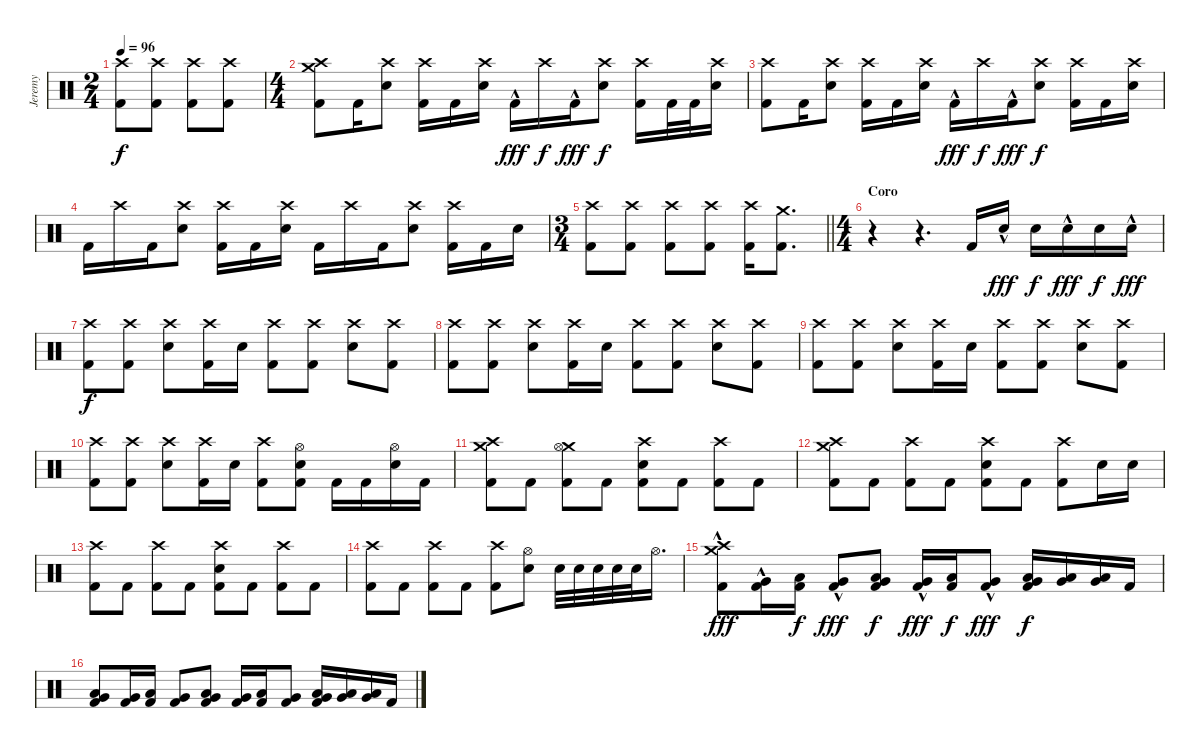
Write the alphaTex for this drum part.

\track ("Jeremy" "Jeremy") {instrument percussion}
\staff {score}
\articulation defaults
\ts (2 4)
\tempo 96
\clef neutral
\ks c
("Crash high (hit)" "Kick (hit) 2").8{dy f} ("Crash high (hit)" "Kick (hit) 2").8 ("Crash high (hit)" "Kick (hit) 2").8 ("Crash high (hit)" "Kick (hit) 2").8 |
\ts (4 4)
("Crash high (hit)" "Crash medium (hit)" "Kick (hit) 2").8 "Kick (hit) 2".16 ("Crash high (hit)" "Snare (hit) 2").8 ("Crash high (hit)" "Kick (hit) 2").16 "Kick (hit) 2".16 ("Crash high (hit)" "Snare (hit) 2").16 "Kick (hit) 2"{hac}.16{dy fff} "Crash high (hit)".16{dy f} "Kick (hit) 2"{hac}.16{dy fff} ("Crash high (hit)" "Snare (hit) 2").8{dy f} ("Crash high (hit)" "Kick (hit) 2").16 "Kick (hit) 2".32 "Kick (hit) 2".32 ("Crash high (hit)" "Snare (hit) 2").16 |
("Crash high (hit)" "Kick (hit) 2").8 "Kick (hit) 2".16 ("Crash high (hit)" "Snare (hit) 2").8 ("Crash high (hit)" "Kick (hit) 2").16 "Kick (hit) 2".16 ("Crash high (hit)" "Snare (hit) 2").16 "Kick (hit) 2"{hac}.16{dy fff} "Crash high (hit)".16{dy f} "Kick (hit) 2"{hac}.16{dy fff} ("Crash high (hit)" "Snare (hit) 2").8{dy f} ("Crash high (hit)" "Kick (hit) 2").16 "Kick (hit) 2".16 ("Crash high (hit)" "Snare (hit) 2").16 |
"Kick (hit) 2".16 "Crash high (hit)".16 "Kick (hit) 2".16 ("Crash high (hit)" "Snare (hit) 2").8 ("Crash high (hit)" "Kick (hit) 2").16 "Kick (hit) 2".16 ("Crash high (hit)" "Snare (hit) 2").16 "Kick (hit) 2".16 "Crash high (hit)".16 "Kick (hit) 2".16 ("Crash high (hit)" "Snare (hit) 2").8 ("Crash high (hit)" "Kick (hit) 2").16 "Kick (hit) 2".16 "Snare (hit) 2".16 |
\ts (3 4)
\barLineRight lightlight
("Crash high (hit)" "Kick (hit) 2").8 ("Crash high (hit)" "Kick (hit) 2").8 ("Crash high (hit)" "Kick (hit) 2").8 ("Crash high (hit)" "Kick (hit) 2").8 ("Crash high (hit)" "Kick (hit) 2").16 ("Crash medium (hit)" "Kick (hit) 2").8{d} |
\ts (4 4)
\section ("" "Coro")
r.4 r.4{d} "Kick (hit) 2".16 "Snare (hit) 2"{hac}.16{dy fff} "Snare (hit) 2".16{dy f} "Snare (hit) 2"{hac}.16{dy fff} "Snare (hit) 2".16{dy f} "Snare (hit) 2"{hac}.16{dy fff} |
("Crash high (hit)" "Kick (hit) 2").8{dy f} ("Crash high (hit)" "Kick (hit) 2").8 ("Crash high (hit)" "Snare (hit) 2").8 ("Crash high (hit)" "Kick (hit) 2").16 "Snare (hit) 2".16 ("Crash high (hit)" "Kick (hit) 2").8 ("Crash high (hit)" "Kick (hit) 2").8 ("Crash high (hit)" "Snare (hit) 2").8 ("Crash high (hit)" "Kick (hit) 2").8 |
("Crash high (hit)" "Kick (hit) 2").8 ("Crash high (hit)" "Kick (hit) 2").8 ("Crash high (hit)" "Snare (hit) 2").8 ("Crash high (hit)" "Kick (hit) 2").16 "Snare (hit) 2".16 ("Crash high (hit)" "Kick (hit) 2").8 ("Crash high (hit)" "Kick (hit) 2").8 ("Crash high (hit)" "Snare (hit) 2").8 ("Crash high (hit)" "Kick (hit) 2").8 |
("Crash high (hit)" "Kick (hit) 2").8 ("Crash high (hit)" "Kick (hit) 2").8 ("Crash high (hit)" "Snare (hit) 2").8 ("Crash high (hit)" "Kick (hit) 2").16 "Snare (hit) 2".16 ("Crash high (hit)" "Kick (hit) 2").8 ("Crash high (hit)" "Kick (hit) 2").8 ("Crash high (hit)" "Snare (hit) 2").8 ("Crash high (hit)" "Kick (hit) 2").8 |
("Crash high (hit)" "Kick (hit) 2").8 ("Crash high (hit)" "Kick (hit) 2").8 ("Crash high (hit)" "Snare (hit) 2").8 ("Crash high (hit)" "Kick (hit) 2").16 "Snare (hit) 2".16 ("Crash high (hit)" "Kick (hit) 2").8 ("Hi-Hat (open)" "Snare (hit) 2" "Kick (hit) 2").8 "Kick (hit) 2".16 "Kick (hit) 2".16 ("Hi-Hat (open)" "Snare (hit) 2").16 "Kick (hit) 2".16 |
("Crash high (hit)" "Crash medium (hit)" "Kick (hit) 2").8 "Kick (hit) 2".8 ("Crash medium (hit)" "Hi-Hat (open)" "Kick (hit) 2").8 "Kick (hit) 2".8 ("Crash high (hit)" "Snare (hit) 2" "Kick (hit) 2").8 "Kick (hit) 2".8 ("Crash high (hit)" "Kick (hit) 2").8 "Kick (hit) 2".8 |
("Crash high (hit)" "Crash medium (hit)" "Kick (hit) 2").8 "Kick (hit) 2".8 ("Crash high (hit)" "Kick (hit) 2").8 "Kick (hit) 2".8 ("Crash high (hit)" "Snare (hit) 2" "Kick (hit) 2").8 "Kick (hit) 2".8 ("Crash high (hit)" "Kick (hit) 2").8 "Snare (hit) 2".16 "Snare (hit) 2".16 |
("Crash high (hit)" "Kick (hit) 2").8 "Kick (hit) 2".8 ("Crash high (hit)" "Kick (hit) 2").8 "Kick (hit) 2".8 ("Crash high (hit)" "Snare (hit) 2" "Kick (hit) 2").8 "Kick (hit) 2".8 ("Crash high (hit)" "Kick (hit) 2").8 "Kick (hit) 2".8 |
("Crash high (hit)" "Kick (hit) 2").8 "Kick (hit) 2".8 ("Crash high (hit)" "Kick (hit) 2").8 "Kick (hit) 2".8 ("Crash high (hit)" "Kick (hit) 2").8 ("Hi-Hat (open)" "Snare (hit) 2").8 "Snare (hit) 2".32 "Snare (hit) 2".32 "Snare (hit) 2".32 "Snare (hit) 2".32 "Snare (hit) 2".32 "Hi-Hat (open)".16{d} |
("Crash high (hit)" "Crash medium (hit)" "Kick (hit) 2"{hac}).8{dy fff} ("Very Low Tom (hit)" "Kick (hit) 2"{hac}).16 ("Low Tom (hit)" "Kick (hit) 2").16{dy f} ("Very Low Tom (hit)" "Kick (hit) 2"{hac}).8{dy fff} ("Low Tom (hit)" "Very Low Tom (hit)" "Kick (hit) 2").8{dy f} ("Very Low Tom (hit)" "Kick (hit) 2"{hac}).16{dy fff} ("Low Tom (hit)" "Kick (hit) 2").16{dy f} ("Very Low Tom (hit)" "Kick (hit) 2"{hac}).8{dy fff} ("Low Tom (hit)" "Very Low Tom (hit)" "Kick (hit) 2").16{dy f} ("Low Tom (hit)" "Very Low Tom (hit)").16 ("Low Tom (hit)" "Very Low Tom (hit)").16 "Kick (hit) 2".16 |
("Low Tom (hit)" "Very Low Tom (hit)" "Kick (hit) 2").8 ("Very Low Tom (hit)" "Kick (hit) 2").16 ("Low Tom (hit)" "Kick (hit) 2").16 ("Very Low Tom (hit)" "Kick (hit) 2").8 ("Low Tom (hit)" "Very Low Tom (hit)" "Kick (hit) 2").8 ("Very Low Tom (hit)" "Kick (hit) 2").16 ("Low Tom (hit)" "Kick (hit) 2").16 ("Very Low Tom (hit)" "Kick (hit) 2").8 ("Low Tom (hit)" "Very Low Tom (hit)" "Kick (hit) 2").16 ("Low Tom (hit)" "Very Low Tom (hit)").16 ("Low Tom (hit)" "Very Low Tom (hit)").16 "Kick (hit) 2".16
